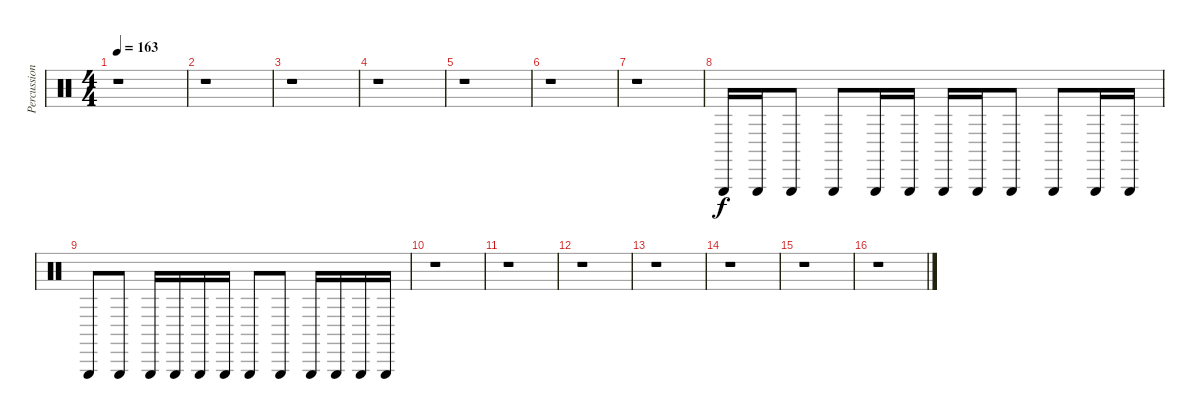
\track ("Percussion" "Percussion") {instrument percussion}
\staff {score}
\articulation defaults
\ts (4 4)
\tempo 163
\clef neutral
\ks c
r.1{dy f} |
r.1 |
r.1 |
r.1 |
r.1 |
r.1 |
r.1 |
"Triangle (hit)".16 "Triangle (hit)".16 "Triangle (hit)".8 "Triangle (hit)".8 "Triangle (hit)".16 "Triangle (hit)".16 "Triangle (hit)".16 "Triangle (hit)".16 "Triangle (hit)".8 "Triangle (hit)".8 "Triangle (hit)".16 "Triangle (hit)".16 |
"Triangle (hit)".8 "Triangle (hit)".8 "Triangle (hit)".16 "Triangle (hit)".16 "Triangle (hit)".16 "Triangle (hit)".16 "Triangle (hit)".8 "Triangle (hit)".8 "Triangle (hit)".16 "Triangle (hit)".16 "Triangle (hit)".16 "Triangle (hit)".16 |
r.1 |
r.1 |
r.1 |
r.1 |
r.1 |
r.1 |
r.1
